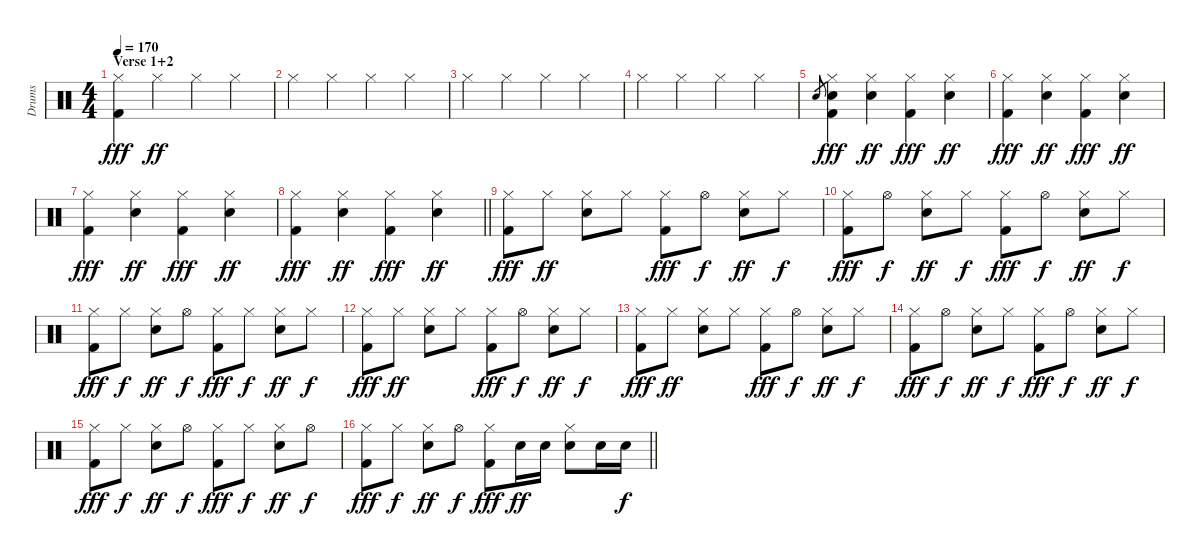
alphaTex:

\track ("Drums" "Drums") {instrument percussion}
\staff {score}
\articulation defaults
\ts (4 4)
\section ("" "Verse 1+2")
\tempo 170
\clef neutral
\ks c
("Hi-Hat (closed)" "Kick (hit) 2").4{dy fff} "Hi-Hat (closed)".4{dy ff} "Hi-Hat (closed)".4 "Hi-Hat (closed)".4 |
"Hi-Hat (closed)".4 "Hi-Hat (closed)".4 "Hi-Hat (closed)".4 "Hi-Hat (closed)".4 |
"Hi-Hat (closed)".4 "Hi-Hat (closed)".4 "Hi-Hat (closed)".4 "Hi-Hat (closed)".4 |
"Hi-Hat (closed)".4 "Hi-Hat (closed)".4 "Hi-Hat (closed)".4 "Hi-Hat (closed)".4 |
"Snare (hit) 2".8{gr} ("Hi-Hat (closed)" "Snare (hit) 2" "Kick (hit) 2").4{dy fff} ("Hi-Hat (closed)" "Snare (hit) 2").4{dy ff} ("Hi-Hat (closed)" "Kick (hit) 2").4{dy fff} ("Hi-Hat (closed)" "Snare (hit) 2").4{dy ff} |
("Hi-Hat (closed)" "Kick (hit) 2").4{dy fff} ("Hi-Hat (closed)" "Snare (hit) 2").4{dy ff} ("Hi-Hat (closed)" "Kick (hit) 2").4{dy fff} ("Hi-Hat (closed)" "Snare (hit) 2").4{dy ff} |
("Hi-Hat (closed)" "Kick (hit) 2").4{dy fff} ("Hi-Hat (closed)" "Snare (hit) 2").4{dy ff} ("Hi-Hat (closed)" "Kick (hit) 2").4{dy fff} ("Hi-Hat (closed)" "Snare (hit) 2").4{dy ff} |
\barLineRight lightlight
("Hi-Hat (closed)" "Kick (hit) 2").4{dy fff} ("Hi-Hat (closed)" "Snare (hit) 2").4{dy ff} ("Hi-Hat (closed)" "Kick (hit) 2").4{dy fff} ("Hi-Hat (closed)" "Snare (hit) 2").4{dy ff} |
("Hi-Hat (closed)" "Kick (hit) 2").8{dy fff} "Hi-Hat (closed)".8{dy ff} ("Hi-Hat (closed)" "Snare (hit) 2").8 "Hi-Hat (closed)".8 ("Hi-Hat (closed)" "Kick (hit) 2").8{dy fff} "Hi-Hat (open)".8{dy f} ("Hi-Hat (closed)" "Snare (hit) 2").8{dy ff} "Hi-Hat (closed)".8{dy f} |
("Hi-Hat (closed)" "Kick (hit) 2").8{dy fff} "Hi-Hat (open)".8{dy f} ("Hi-Hat (closed)" "Snare (hit) 2").8{dy ff} "Hi-Hat (closed)".8{dy f} ("Hi-Hat (closed)" "Kick (hit) 2").8{dy fff} "Hi-Hat (open)".8{dy f} ("Hi-Hat (closed)" "Snare (hit) 2").8{dy ff} "Hi-Hat (closed)".8{dy f} |
("Hi-Hat (closed)" "Kick (hit) 2").8{dy fff} "Hi-Hat (closed)".8{dy f} ("Hi-Hat (closed)" "Snare (hit) 2").8{dy ff} "Hi-Hat (open)".8{dy f} ("Hi-Hat (closed)" "Kick (hit) 2").8{dy fff} "Hi-Hat (closed)".8{dy f} ("Hi-Hat (closed)" "Snare (hit) 2").8{dy ff} "Hi-Hat (closed)".8{dy f} |
("Hi-Hat (closed)" "Kick (hit) 2").8{dy fff} "Hi-Hat (closed)".8{dy ff} ("Hi-Hat (closed)" "Snare (hit) 2").8 "Hi-Hat (closed)".8 ("Hi-Hat (closed)" "Kick (hit) 2").8{dy fff} "Hi-Hat (open)".8{dy f} ("Hi-Hat (closed)" "Snare (hit) 2").8{dy ff} "Hi-Hat (closed)".8{dy f} |
("Hi-Hat (closed)" "Kick (hit) 2").8{dy fff} "Hi-Hat (closed)".8{dy ff} ("Hi-Hat (closed)" "Snare (hit) 2").8 "Hi-Hat (closed)".8 ("Hi-Hat (closed)" "Kick (hit) 2").8{dy fff} "Hi-Hat (open)".8{dy f} ("Hi-Hat (closed)" "Snare (hit) 2").8{dy ff} "Hi-Hat (closed)".8{dy f} |
("Hi-Hat (closed)" "Kick (hit) 2").8{dy fff} "Hi-Hat (open)".8{dy f} ("Hi-Hat (closed)" "Snare (hit) 2").8{dy ff} "Hi-Hat (closed)".8{dy f} ("Hi-Hat (closed)" "Kick (hit) 2").8{dy fff} "Hi-Hat (open)".8{dy f} ("Hi-Hat (closed)" "Snare (hit) 2").8{dy ff} "Hi-Hat (closed)".8{dy f} |
("Hi-Hat (closed)" "Kick (hit) 2").8{dy fff} "Hi-Hat (closed)".8{dy f} ("Hi-Hat (closed)" "Snare (hit) 2").8{dy ff} "Hi-Hat (open)".8{dy f} ("Hi-Hat (closed)" "Kick (hit) 2").8{dy fff} "Hi-Hat (closed)".8{dy f} ("Hi-Hat (closed)" "Snare (hit) 2").8{dy ff} "Hi-Hat (open)".8{dy f} |
\barLineRight lightlight
("Hi-Hat (closed)" "Kick (hit) 2").8{dy fff} "Hi-Hat (closed)".8{dy f} ("Hi-Hat (closed)" "Snare (hit) 2").8{dy ff} "Hi-Hat (open)".8{dy f} ("Hi-Hat (closed)" "Kick (hit) 2").8{dy fff} "Snare (hit) 2".16{dy ff} "Snare (hit) 2".16 ("Hi-Hat (closed)" "Snare (hit) 2").8 "Snare (hit) 2".16 "Snare (hit) 2".16{dy f}
